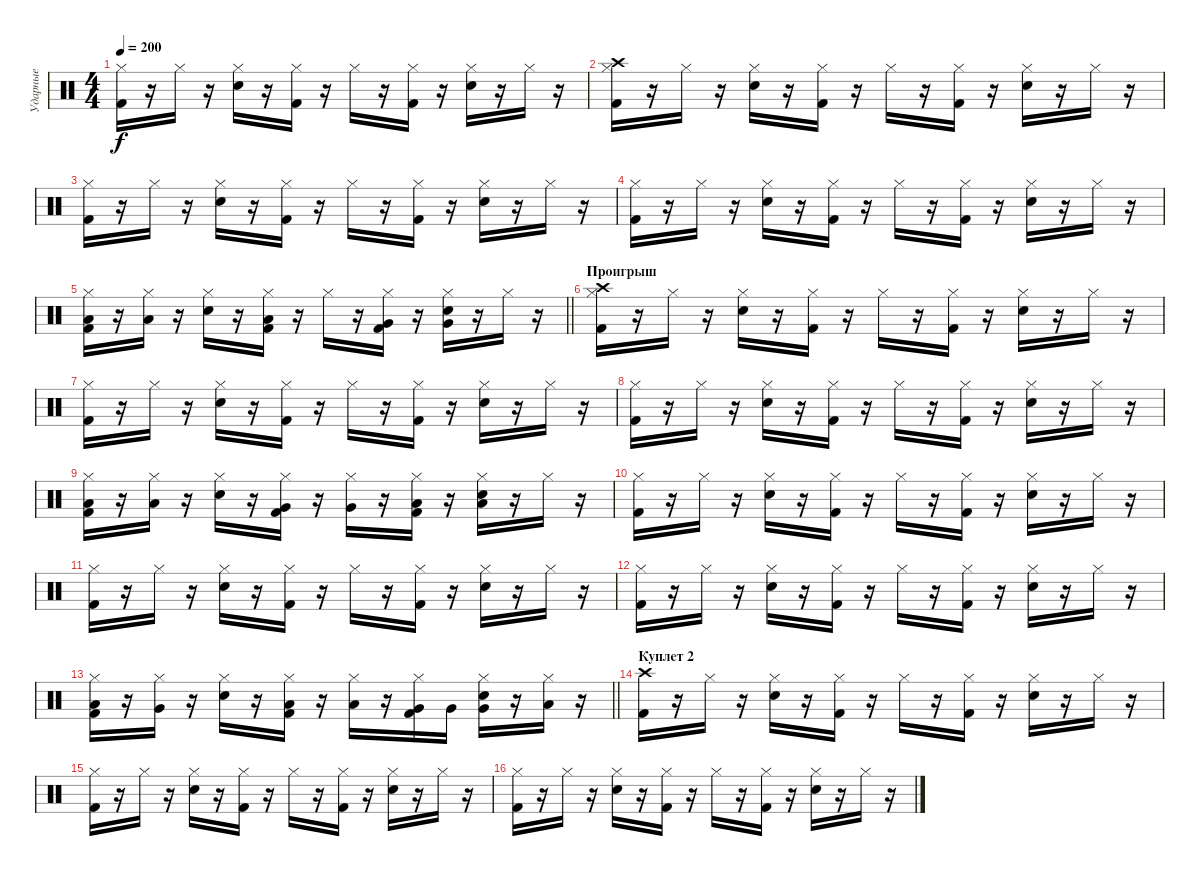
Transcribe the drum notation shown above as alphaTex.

\track ("Ударные" "Ударные") {instrument percussion}
\staff {score}
\articulation defaults
\ts (4 4)
\tempo 200
\clef neutral
\ks c
("Kick (hit) 2" "Hi-Hat (closed)").16{dy f} r.16 "Hi-Hat (closed)".16 r.16 ("Snare (hit) 2" "Hi-Hat (closed)").16 r.16 ("Kick (hit) 2" "Hi-Hat (closed)").16 r.16 "Hi-Hat (closed)".16 r.16 ("Kick (hit) 2" "Hi-Hat (closed)").16 r.16 ("Snare (hit) 2" "Hi-Hat (closed)").16 r.16 "Hi-Hat (closed)".16 r.16 |
("Kick (hit) 2" "Crash high (hit)" "Hi-Hat (closed)").16 r.16 "Hi-Hat (closed)".16 r.16 ("Snare (hit) 2" "Hi-Hat (closed)").16 r.16 ("Kick (hit) 2" "Hi-Hat (closed)").16 r.16 "Hi-Hat (closed)".16 r.16 ("Kick (hit) 2" "Hi-Hat (closed)").16 r.16 ("Snare (hit) 2" "Hi-Hat (closed)").16 r.16 "Hi-Hat (closed)".16 r.16 |
("Kick (hit) 2" "Hi-Hat (closed)").16 r.16 "Hi-Hat (closed)".16 r.16 ("Snare (hit) 2" "Hi-Hat (closed)").16 r.16 ("Kick (hit) 2" "Hi-Hat (closed)").16 r.16 "Hi-Hat (closed)".16 r.16 ("Kick (hit) 2" "Hi-Hat (closed)").16 r.16 ("Snare (hit) 2" "Hi-Hat (closed)").16 r.16 "Hi-Hat (closed)".16 r.16 |
("Kick (hit) 2" "Hi-Hat (closed)").16 r.16 "Hi-Hat (closed)".16 r.16 ("Snare (hit) 2" "Hi-Hat (closed)").16 r.16 ("Kick (hit) 2" "Hi-Hat (closed)").16 r.16 "Hi-Hat (closed)".16 r.16 ("Kick (hit) 2" "Hi-Hat (closed)").16 r.16 ("Snare (hit) 2" "Hi-Hat (closed)").16 r.16 "Hi-Hat (closed)".16 r.16 |
\barLineRight lightlight
("Kick (hit) 2" "Low Floor Tom (hit)" "Hi-Hat (closed)").16 r.16 ("Low Floor Tom (hit)" "Hi-Hat (closed)").16 r.16 ("Snare (hit) 2" "Hi-Hat (closed)").16 r.16 ("Kick (hit) 2" "Low Floor Tom (hit)" "Hi-Hat (closed)").16 r.16 "Hi-Hat (closed)".16 r.16 ("Kick (hit) 2" "Very Low Tom (hit)" "Hi-Hat (closed)").16 r.16 ("Snare (hit) 2" "Very Low Tom (hit)" "Hi-Hat (closed)").16 r.16 "Hi-Hat (closed)".16 r.16 |
\section ("" "Проигрыш")
("Kick (hit) 2" "Crash high (hit)" "Hi-Hat (closed)").16 r.16 "Hi-Hat (closed)".16 r.16 ("Snare (hit) 2" "Hi-Hat (closed)").16 r.16 ("Kick (hit) 2" "Hi-Hat (closed)").16 r.16 "Hi-Hat (closed)".16 r.16 ("Kick (hit) 2" "Hi-Hat (closed)").16 r.16 ("Snare (hit) 2" "Hi-Hat (closed)").16 r.16 "Hi-Hat (closed)".16 r.16 |
("Kick (hit) 2" "Hi-Hat (closed)").16 r.16 "Hi-Hat (closed)".16 r.16 ("Snare (hit) 2" "Hi-Hat (closed)").16 r.16 ("Kick (hit) 2" "Hi-Hat (closed)").16 r.16 "Hi-Hat (closed)".16 r.16 ("Kick (hit) 2" "Hi-Hat (closed)").16 r.16 ("Snare (hit) 2" "Hi-Hat (closed)").16 r.16 "Hi-Hat (closed)".16 r.16 |
("Kick (hit) 2" "Hi-Hat (closed)").16 r.16 "Hi-Hat (closed)".16 r.16 ("Snare (hit) 2" "Hi-Hat (closed)").16 r.16 ("Kick (hit) 2" "Hi-Hat (closed)").16 r.16 "Hi-Hat (closed)".16 r.16 ("Kick (hit) 2" "Hi-Hat (closed)").16 r.16 ("Snare (hit) 2" "Hi-Hat (closed)").16 r.16 "Hi-Hat (closed)".16 r.16 |
("Kick (hit) 2" "Low Floor Tom (hit)" "Hi-Hat (closed)").16 r.16 ("Low Floor Tom (hit)" "Hi-Hat (closed)").16 r.16 ("Snare (hit) 2" "Hi-Hat (closed)").16 r.16 ("Kick (hit) 2" "Very Low Tom (hit)" "Hi-Hat (closed)").16 r.16 ("Very Low Tom (hit)" "Hi-Hat (closed)").16 r.16 ("Kick (hit) 2" "Low Tom (hit)" "Hi-Hat (closed)").16 r.16 ("Snare (hit) 2" "Low Tom (hit)" "Hi-Hat (closed)").16 r.16 "Hi-Hat (closed)".16 r.16 |
("Kick (hit) 2" "Hi-Hat (closed)").16 r.16 "Hi-Hat (closed)".16 r.16 ("Snare (hit) 2" "Hi-Hat (closed)").16 r.16 ("Kick (hit) 2" "Hi-Hat (closed)").16 r.16 "Hi-Hat (closed)".16 r.16 ("Kick (hit) 2" "Hi-Hat (closed)").16 r.16 ("Snare (hit) 2" "Hi-Hat (closed)").16 r.16 "Hi-Hat (closed)".16 r.16 |
("Kick (hit) 2" "Hi-Hat (closed)").16 r.16 "Hi-Hat (closed)".16 r.16 ("Snare (hit) 2" "Hi-Hat (closed)").16 r.16 ("Kick (hit) 2" "Hi-Hat (closed)").16 r.16 "Hi-Hat (closed)".16 r.16 ("Kick (hit) 2" "Hi-Hat (closed)").16 r.16 ("Snare (hit) 2" "Hi-Hat (closed)").16 r.16 "Hi-Hat (closed)".16 r.16 |
("Kick (hit) 2" "Hi-Hat (closed)").16 r.16 "Hi-Hat (closed)".16 r.16 ("Snare (hit) 2" "Hi-Hat (closed)").16 r.16 ("Kick (hit) 2" "Hi-Hat (closed)").16 r.16 "Hi-Hat (closed)".16 r.16 ("Kick (hit) 2" "Hi-Hat (closed)").16 r.16 ("Snare (hit) 2" "Hi-Hat (closed)").16 r.16 "Hi-Hat (closed)".16 r.16 |
\barLineRight lightlight
("Kick (hit) 2" "Low Floor Tom (hit)" "Hi-Hat (closed)").16 r.16 ("Very Low Tom (hit)" "Hi-Hat (closed)").16 r.16 ("Snare (hit) 2" "Hi-Hat (closed)").16 r.16 ("Kick (hit) 2" "Low Floor Tom (hit)" "Hi-Hat (closed)").16 r.16 ("Low Floor Tom (hit)" "Hi-Hat (closed)").16 r.16 ("Kick (hit) 2" "Very Low Tom (hit)" "Hi-Hat (closed)").16 "Very Low Tom (hit)".16 ("Snare (hit) 2" "Very Low Tom (hit)" "Hi-Hat (closed)").16 r.16 ("Low Tom (hit)" "Hi-Hat (closed)").16 r.16 |
\section ("" "Куплет 2")
("Kick (hit) 2" "Crash high (hit)").16 r.16 "Hi-Hat (closed)".16 r.16 ("Snare (hit) 2" "Hi-Hat (closed)").16 r.16 ("Kick (hit) 2" "Hi-Hat (closed)").16 r.16 "Hi-Hat (closed)".16 r.16 ("Kick (hit) 2" "Hi-Hat (closed)").16 r.16 ("Snare (hit) 2" "Hi-Hat (closed)").16 r.16 "Hi-Hat (closed)".16 r.16 |
("Kick (hit) 2" "Hi-Hat (closed)").16 r.16 "Hi-Hat (closed)".16 r.16 ("Snare (hit) 2" "Hi-Hat (closed)").16 r.16 ("Kick (hit) 2" "Hi-Hat (closed)").16 r.16 "Hi-Hat (closed)".16 r.16 ("Kick (hit) 2" "Hi-Hat (closed)").16 r.16 ("Snare (hit) 2" "Hi-Hat (closed)").16 r.16 "Hi-Hat (closed)".16 r.16 |
("Kick (hit) 2" "Hi-Hat (closed)").16 r.16 "Hi-Hat (closed)".16 r.16 ("Snare (hit) 2" "Hi-Hat (closed)").16 r.16 ("Kick (hit) 2" "Hi-Hat (closed)").16 r.16 "Hi-Hat (closed)".16 r.16 ("Kick (hit) 2" "Hi-Hat (closed)").16 r.16 ("Snare (hit) 2" "Hi-Hat (closed)").16 r.16 "Hi-Hat (closed)".16 r.16
